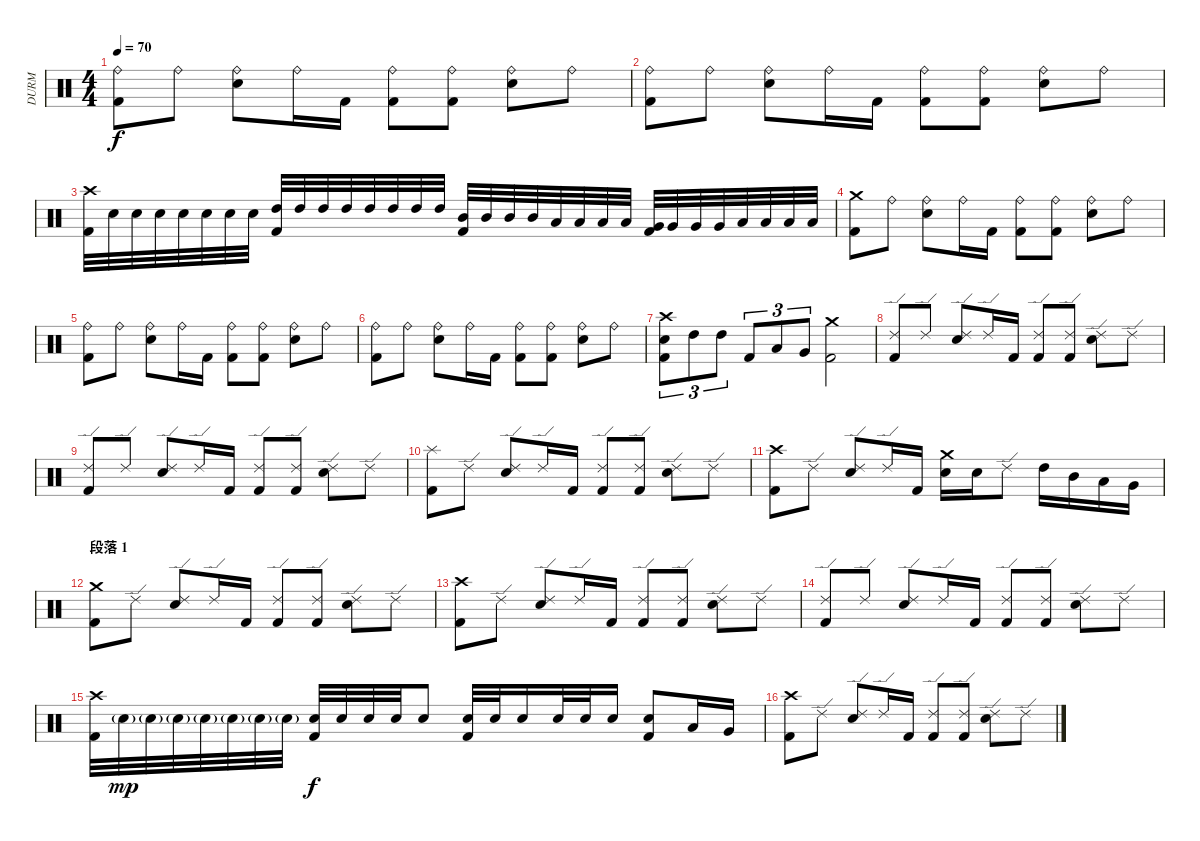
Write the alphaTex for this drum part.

\track ("DURM" "DURM") {instrument percussion}
\staff {score}
\articulation defaults
\ts (4 4)
\tempo 70
\clef neutral
\ks c
("Ride (bell)" "Kick (hit) 2").8{dy f} "Ride (bell)".8 ("Ride (bell)" "Snare (hit) 2").8 "Ride (bell)".16 "Kick (hit) 2".16 ("Ride (bell)" "Kick (hit) 2").8 ("Ride (bell)" "Kick (hit) 2").8 ("Ride (bell)" "Snare (hit) 2").8 "Ride (bell)".8 |
("Ride (bell)" "Kick (hit) 2").8 "Ride (bell)".8 ("Ride (bell)" "Snare (hit) 2").8 "Ride (bell)".16 "Kick (hit) 2".16 ("Ride (bell)" "Kick (hit) 2").8 ("Ride (bell)" "Kick (hit) 2").8 ("Ride (bell)" "Snare (hit) 2").8 "Ride (bell)".8 |
("Crash high (hit)" "Kick (hit) 2").32 "Snare (hit) 2".32 "Snare (hit) 2".32 "Snare (hit) 2".32 "Snare (hit) 2".32 "Snare (hit) 2".32 "Snare (hit) 2".32 "Snare (hit) 2".32 ("High Tom (hit)" "Kick (hit) 2").32 "High Tom (hit)".32 "High Tom (hit)".32 "High Tom (hit)".32 "High Tom (hit)".32 "High Tom (hit)".32 "High Tom (hit)".32 "High Tom (hit)".32 ("Mid Tom (hit)" "Kick (hit) 2").32 "Mid Tom (hit)".32 "Mid Tom (hit)".32 "Mid Tom (hit)".32 "Low Tom (hit)".32 "Low Tom (hit)".32 "Low Tom (hit)".32 "Low Tom (hit)".32 ("Very Low Tom (hit)" "Kick (hit) 2").32 "Very Low Tom (hit)".32 "Very Low Tom (hit)".32 "Very Low Tom (hit)".32 "Low Floor Tom (hit)".32 "Low Floor Tom (hit)".32 "Low Floor Tom (hit)".32 "Low Floor Tom (hit)".32 |
("Crash medium (hit)" "Kick (hit) 2").8 "Ride (bell)".8 ("Ride (bell)" "Snare (hit) 2").8 "Ride (bell)".16 "Kick (hit) 2".16 ("Ride (bell)" "Kick (hit) 2").8 ("Ride (bell)" "Kick (hit) 2").8 ("Ride (bell)" "Snare (hit) 2").8 "Ride (bell)".8 |
("Ride (bell)" "Kick (hit) 2").8 "Ride (bell)".8 ("Ride (bell)" "Snare (hit) 2").8 "Ride (bell)".16 "Kick (hit) 2".16 ("Ride (bell)" "Kick (hit) 2").8 ("Ride (bell)" "Kick (hit) 2").8 ("Ride (bell)" "Snare (hit) 2").8 "Ride (bell)".8 |
("Ride (bell)" "Kick (hit) 2").8 "Ride (bell)".8 ("Ride (bell)" "Snare (hit) 2").8 "Ride (bell)".16 "Kick (hit) 2".16 ("Ride (bell)" "Kick (hit) 2").8 ("Ride (bell)" "Kick (hit) 2").8 ("Ride (bell)" "Snare (hit) 2").8 "Ride (bell)".8 |
("Crash high (hit)" "Snare (hit) 2" "Kick (hit) 2").8{tu (3 2)} "High Tom (hit)".8{tu (3 2)} "High Tom (hit)".8{tu (3 2)} "Kick (hit) 2".8{tu (3 2)} "Low Tom (hit)".8{tu (3 2)} "Very Low Tom (hit)".8{tu (3 2)} ("Crash medium (hit)" "Kick (hit) 2").2 |
("Ride (edge) 2" "Kick (hit) 2").8 "Ride (edge) 2".8 ("Ride (edge) 2" "Snare (hit) 2").8 "Ride (edge) 2".16 "Kick (hit) 2".16 ("Ride (edge) 2" "Kick (hit) 2").8 ("Ride (edge) 2" "Kick (hit) 2").8 ("Ride (edge) 2" "Snare (hit) 2").8 "Ride (edge) 2".8 |
("Ride (edge) 2" "Kick (hit) 2").8 "Ride (edge) 2".8 ("Ride (edge) 2" "Snare (hit) 2").8 "Ride (edge) 2".16 "Kick (hit) 2".16 ("Ride (edge) 2" "Kick (hit) 2").8 ("Ride (edge) 2" "Kick (hit) 2").8 ("Ride (edge) 2" "Snare (hit) 2").8 "Ride (edge) 2".8 |
("Splash (hit)" "Kick (hit) 2").8 "Ride (edge) 2".8 ("Ride (edge) 2" "Snare (hit) 2").8 "Ride (edge) 2".16 "Kick (hit) 2".16 ("Ride (edge) 2" "Kick (hit) 2").8 ("Ride (edge) 2" "Kick (hit) 2").8 ("Ride (edge) 2" "Snare (hit) 2").8 "Ride (edge) 2".8 |
("Crash high (hit)" "Kick (hit) 2").8 "Ride (edge) 2".8 ("Ride (edge) 2" "Snare (hit) 2").8 "Ride (edge) 2".16 "Kick (hit) 2".16 ("Crash medium (hit)" "Snare (hit) 2").16 "Snare (hit) 2".16 "Ride (edge) 2".8 "High Tom (hit)".16 "Mid Tom (hit)".16 "Low Tom (hit)".16 "Very Low Tom (hit)".16 |
\section ("" "段落 1")
("Crash medium (hit)" "Kick (hit) 2").8 "Ride (edge) 2".8 ("Ride (edge) 2" "Snare (hit) 2").8 "Ride (edge) 2".16 "Kick (hit) 2".16 ("Ride (edge) 2" "Kick (hit) 2").8 ("Ride (edge) 2" "Kick (hit) 2").8 ("Ride (edge) 2" "Snare (hit) 2").8 "Ride (edge) 2".8 |
("Crash high (hit)" "Kick (hit) 2").8 "Ride (edge) 2".8 ("Ride (edge) 2" "Snare (hit) 2").8 "Ride (edge) 2".16 "Kick (hit) 2".16 ("Ride (edge) 2" "Kick (hit) 2").8 ("Ride (edge) 2" "Kick (hit) 2").8 ("Ride (edge) 2" "Snare (hit) 2").8 "Ride (edge) 2".8 |
("Ride (edge) 2" "Kick (hit) 2").8 "Ride (edge) 2".8 ("Ride (edge) 2" "Snare (hit) 2").8 "Ride (edge) 2".16 "Kick (hit) 2".16 ("Ride (edge) 2" "Kick (hit) 2").8 ("Ride (edge) 2" "Kick (hit) 2").8 ("Ride (edge) 2" "Snare (hit) 2").8 "Ride (edge) 2".8 |
("Crash high (hit)" "Kick (hit) 2").32 "Snare (hit) 2"{g}.32{dy mp} "Snare (hit) 2"{g}.32 "Snare (hit) 2"{g}.32 "Snare (hit) 2"{g}.32 "Snare (hit) 2"{g}.32 "Snare (hit) 2"{g}.32 "Snare (hit) 2"{g}.32 ("Snare (hit) 2" "Kick (hit) 2").32{dy f} "Snare (hit) 2".32 "Snare (hit) 2".32 "Snare (hit) 2".32 "Snare (hit) 2".8 ("Snare (hit) 2" "Kick (hit) 2").32 "Snare (hit) 2".32 "Snare (hit) 2".16 "Snare (hit) 2".32 "Snare (hit) 2".32 "Snare (hit) 2".16 ("Snare (hit) 2" "Kick (hit) 2").8 "Low Tom (hit)".16 "Very Low Tom (hit)".16 |
("Crash high (hit)" "Kick (hit) 2").8 "Ride (edge) 2".8 ("Ride (edge) 2" "Snare (hit) 2").8 "Ride (edge) 2".16 "Kick (hit) 2".16 ("Ride (edge) 2" "Kick (hit) 2").8 ("Ride (edge) 2" "Kick (hit) 2").8 ("Ride (edge) 2" "Snare (hit) 2").8 "Ride (edge) 2".8
